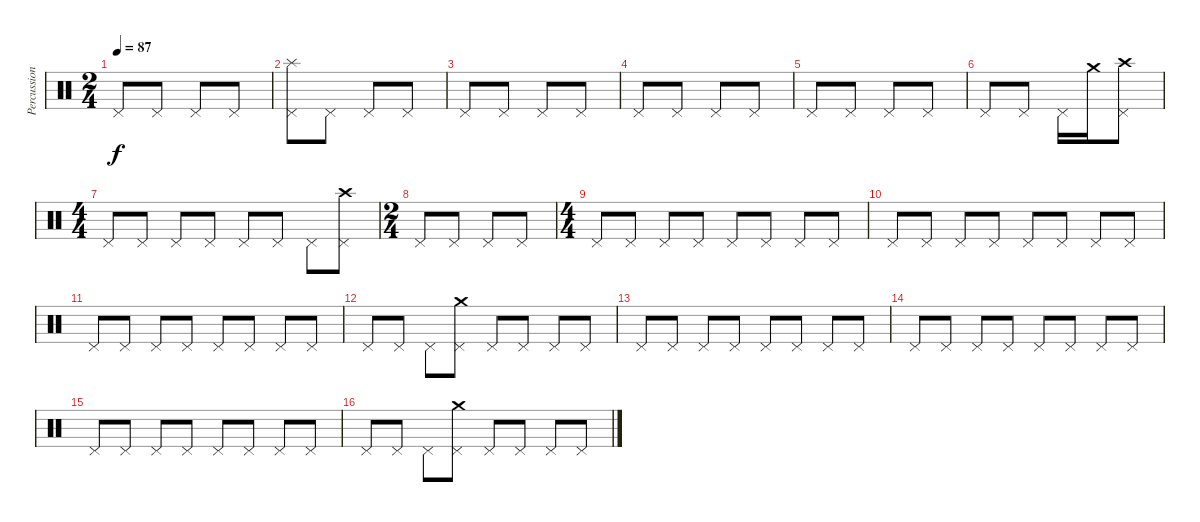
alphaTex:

\track ("Percussion" "Percussion") {instrument percussion}
\staff {score}
\articulation defaults
\ts (2 4)
\tempo 87
\clef neutral
\ks c "Pedal Hi-Hat (hit)".8{dy f} "Pedal Hi-Hat (hit)".8 "Pedal Hi-Hat (hit)".8 "Pedal Hi-Hat (hit)".8
|
("Splash (hit)" "Pedal Hi-Hat (hit)").8 "Pedal Hi-Hat (hit)".8 "Pedal Hi-Hat (hit)".8 "Pedal Hi-Hat (hit)".8 |
"Pedal Hi-Hat (hit)".8 "Pedal Hi-Hat (hit)".8 "Pedal Hi-Hat (hit)".8 "Pedal Hi-Hat (hit)".8 |
"Pedal Hi-Hat (hit)".8 "Pedal Hi-Hat (hit)".8 "Pedal Hi-Hat (hit)".8 "Pedal Hi-Hat (hit)".8 |
"Pedal Hi-Hat (hit)".8 "Pedal Hi-Hat (hit)".8 "Pedal Hi-Hat (hit)".8 "Pedal Hi-Hat (hit)".8 |
"Pedal Hi-Hat (hit)".8 "Pedal Hi-Hat (hit)".8 "Pedal Hi-Hat (hit)".16 "Crash medium (hit)".16 ("Crash high (hit)" "Pedal Hi-Hat (hit)").8 |
\ts (4 4)
"Pedal Hi-Hat (hit)".8 "Pedal Hi-Hat (hit)".8 "Pedal Hi-Hat (hit)".8 "Pedal Hi-Hat (hit)".8 "Pedal Hi-Hat (hit)".8 "Pedal Hi-Hat (hit)".8 "Pedal Hi-Hat (hit)".8 ("Crash high (hit)" "Pedal Hi-Hat (hit)").8 |
\ts (2 4)
"Pedal Hi-Hat (hit)".8 "Pedal Hi-Hat (hit)".8 "Pedal Hi-Hat (hit)".8 "Pedal Hi-Hat (hit)".8 |
\ts (4 4)
"Pedal Hi-Hat (hit)".8 "Pedal Hi-Hat (hit)".8 "Pedal Hi-Hat (hit)".8 "Pedal Hi-Hat (hit)".8 "Pedal Hi-Hat (hit)".8 "Pedal Hi-Hat (hit)".8 "Pedal Hi-Hat (hit)".8 "Pedal Hi-Hat (hit)".8 |
"Pedal Hi-Hat (hit)".8 "Pedal Hi-Hat (hit)".8 "Pedal Hi-Hat (hit)".8 "Pedal Hi-Hat (hit)".8 "Pedal Hi-Hat (hit)".8 "Pedal Hi-Hat (hit)".8 "Pedal Hi-Hat (hit)".8 "Pedal Hi-Hat (hit)".8 |
"Pedal Hi-Hat (hit)".8 "Pedal Hi-Hat (hit)".8 "Pedal Hi-Hat (hit)".8 "Pedal Hi-Hat (hit)".8 "Pedal Hi-Hat (hit)".8 "Pedal Hi-Hat (hit)".8 "Pedal Hi-Hat (hit)".8 "Pedal Hi-Hat (hit)".8 |
"Pedal Hi-Hat (hit)".8 "Pedal Hi-Hat (hit)".8 "Pedal Hi-Hat (hit)".8 ("Crash medium (hit)" "Pedal Hi-Hat (hit)").8 "Pedal Hi-Hat (hit)".8 "Pedal Hi-Hat (hit)".8 "Pedal Hi-Hat (hit)".8 "Pedal Hi-Hat (hit)".8 |
"Pedal Hi-Hat (hit)".8 "Pedal Hi-Hat (hit)".8 "Pedal Hi-Hat (hit)".8 "Pedal Hi-Hat (hit)".8 "Pedal Hi-Hat (hit)".8 "Pedal Hi-Hat (hit)".8 "Pedal Hi-Hat (hit)".8 "Pedal Hi-Hat (hit)".8 |
"Pedal Hi-Hat (hit)".8 "Pedal Hi-Hat (hit)".8 "Pedal Hi-Hat (hit)".8 "Pedal Hi-Hat (hit)".8 "Pedal Hi-Hat (hit)".8 "Pedal Hi-Hat (hit)".8 "Pedal Hi-Hat (hit)".8 "Pedal Hi-Hat (hit)".8 |
"Pedal Hi-Hat (hit)".8 "Pedal Hi-Hat (hit)".8 "Pedal Hi-Hat (hit)".8 "Pedal Hi-Hat (hit)".8 "Pedal Hi-Hat (hit)".8 "Pedal Hi-Hat (hit)".8 "Pedal Hi-Hat (hit)".8 "Pedal Hi-Hat (hit)".8 |
"Pedal Hi-Hat (hit)".8 "Pedal Hi-Hat (hit)".8 "Pedal Hi-Hat (hit)".8 ("Crash medium (hit)" "Pedal Hi-Hat (hit)").8 "Pedal Hi-Hat (hit)".8 "Pedal Hi-Hat (hit)".8 "Pedal Hi-Hat (hit)".8 "Pedal Hi-Hat (hit)".8
